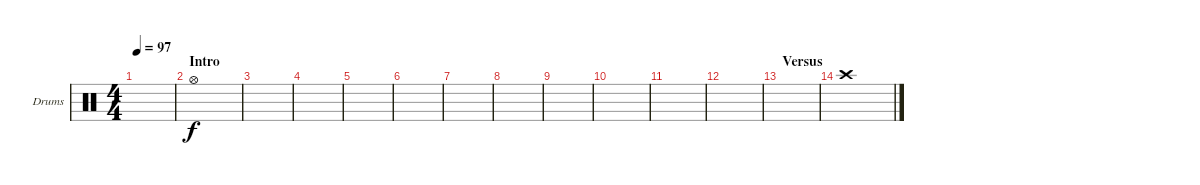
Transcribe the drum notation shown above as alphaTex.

\bracketExtendMode groupsimilarinstruments
\firstSystemTrackNameOrientation horizontal
\otherSystemsTrackNameOrientation horizontal
\track ("OH" "Drums") {instrument percussion}
\staff {score}
\articulation defaults
\ts (4 4)
\tempo 97
\clef neutral
\ks c
|
\section ("" "Intro")
"Hi-Hat (open)".1 |
|
|
|
|
|
|
|
|
|
|
\section ("" "Versus")
|
"Crash high (hit)".1
